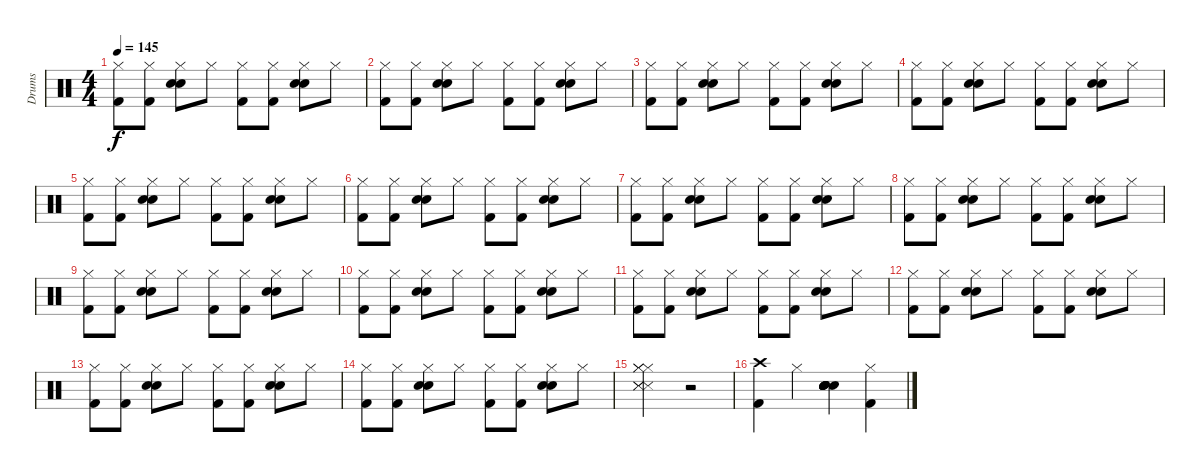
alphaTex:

\track ("Drums" "Drums") {instrument percussion}
\staff {score}
\articulation defaults
\ts (4 4)
\tempo 145
\clef neutral
\ks c
("Hi-Hat (closed)" "Kick (hit) 2").8{dy f} ("Hi-Hat (closed)" "Kick (hit) 2").8 ("Hi-Hat (closed)" "Electric Snare (hit)" "Snare (hit) 2").8 "Hi-Hat (closed)".8 ("Hi-Hat (closed)" "Kick (hit) 2").8 ("Hi-Hat (closed)" "Kick (hit) 2").8 ("Hi-Hat (closed)" "Electric Snare (hit)" "Snare (hit) 2").8 "Hi-Hat (closed)".8 |
("Hi-Hat (closed)" "Kick (hit) 2").8 ("Hi-Hat (closed)" "Kick (hit) 2").8 ("Hi-Hat (closed)" "Electric Snare (hit)" "Snare (hit) 2").8 "Hi-Hat (closed)".8 ("Hi-Hat (closed)" "Kick (hit) 2").8 ("Hi-Hat (closed)" "Kick (hit) 2").8 ("Hi-Hat (closed)" "Electric Snare (hit)" "Snare (hit) 2").8 "Hi-Hat (closed)".8 |
("Hi-Hat (closed)" "Kick (hit) 2").8 ("Hi-Hat (closed)" "Kick (hit) 2").8 ("Hi-Hat (closed)" "Electric Snare (hit)" "Snare (hit) 2").8 "Hi-Hat (closed)".8 ("Hi-Hat (closed)" "Kick (hit) 2").8 ("Hi-Hat (closed)" "Kick (hit) 2").8 ("Hi-Hat (closed)" "Electric Snare (hit)" "Snare (hit) 2").8 "Hi-Hat (closed)".8 |
("Hi-Hat (closed)" "Kick (hit) 2").8 ("Hi-Hat (closed)" "Kick (hit) 2").8 ("Hi-Hat (closed)" "Electric Snare (hit)" "Snare (hit) 2").8 "Hi-Hat (closed)".8 ("Hi-Hat (closed)" "Kick (hit) 2").8 ("Hi-Hat (closed)" "Kick (hit) 2").8 ("Hi-Hat (closed)" "Electric Snare (hit)" "Snare (hit) 2").8 "Hi-Hat (closed)".8 |
("Hi-Hat (closed)" "Kick (hit) 2").8 ("Hi-Hat (closed)" "Kick (hit) 2").8 ("Hi-Hat (closed)" "Electric Snare (hit)" "Snare (hit) 2").8 "Hi-Hat (closed)".8 ("Hi-Hat (closed)" "Kick (hit) 2").8 ("Hi-Hat (closed)" "Kick (hit) 2").8 ("Hi-Hat (closed)" "Electric Snare (hit)" "Snare (hit) 2").8 "Hi-Hat (closed)".8 |
("Hi-Hat (closed)" "Kick (hit) 2").8 ("Hi-Hat (closed)" "Kick (hit) 2").8 ("Hi-Hat (closed)" "Electric Snare (hit)" "Snare (hit) 2").8 "Hi-Hat (closed)".8 ("Hi-Hat (closed)" "Kick (hit) 2").8 ("Hi-Hat (closed)" "Kick (hit) 2").8 ("Hi-Hat (closed)" "Electric Snare (hit)" "Snare (hit) 2").8 "Hi-Hat (closed)".8 |
("Hi-Hat (closed)" "Kick (hit) 2").8 ("Hi-Hat (closed)" "Kick (hit) 2").8 ("Hi-Hat (closed)" "Electric Snare (hit)" "Snare (hit) 2").8 "Hi-Hat (closed)".8 ("Hi-Hat (closed)" "Kick (hit) 2").8 ("Hi-Hat (closed)" "Kick (hit) 2").8 ("Hi-Hat (closed)" "Electric Snare (hit)" "Snare (hit) 2").8 "Hi-Hat (closed)".8 |
("Hi-Hat (closed)" "Kick (hit) 2").8 ("Hi-Hat (closed)" "Kick (hit) 2").8 ("Hi-Hat (closed)" "Electric Snare (hit)" "Snare (hit) 2").8 "Hi-Hat (closed)".8 ("Hi-Hat (closed)" "Kick (hit) 2").8 ("Hi-Hat (closed)" "Kick (hit) 2").8 ("Hi-Hat (closed)" "Electric Snare (hit)" "Snare (hit) 2").8 "Hi-Hat (closed)".8 |
("Hi-Hat (closed)" "Kick (hit) 2").8 ("Hi-Hat (closed)" "Kick (hit) 2").8 ("Hi-Hat (closed)" "Electric Snare (hit)" "Snare (hit) 2").8 "Hi-Hat (closed)".8 ("Hi-Hat (closed)" "Kick (hit) 2").8 ("Hi-Hat (closed)" "Kick (hit) 2").8 ("Hi-Hat (closed)" "Electric Snare (hit)" "Snare (hit) 2").8 "Hi-Hat (closed)".8 |
("Hi-Hat (closed)" "Kick (hit) 2").8 ("Hi-Hat (closed)" "Kick (hit) 2").8 ("Hi-Hat (closed)" "Electric Snare (hit)" "Snare (hit) 2").8 "Hi-Hat (closed)".8 ("Hi-Hat (closed)" "Kick (hit) 2").8 ("Hi-Hat (closed)" "Kick (hit) 2").8 ("Hi-Hat (closed)" "Electric Snare (hit)" "Snare (hit) 2").8 "Hi-Hat (closed)".8 |
("Hi-Hat (closed)" "Kick (hit) 2").8 ("Hi-Hat (closed)" "Kick (hit) 2").8 ("Hi-Hat (closed)" "Electric Snare (hit)" "Snare (hit) 2").8 "Hi-Hat (closed)".8 ("Hi-Hat (closed)" "Kick (hit) 2").8 ("Hi-Hat (closed)" "Kick (hit) 2").8 ("Hi-Hat (closed)" "Electric Snare (hit)" "Snare (hit) 2").8 "Hi-Hat (closed)".8 |
("Hi-Hat (closed)" "Kick (hit) 2").8 ("Hi-Hat (closed)" "Kick (hit) 2").8 ("Hi-Hat (closed)" "Electric Snare (hit)" "Snare (hit) 2").8 "Hi-Hat (closed)".8 ("Hi-Hat (closed)" "Kick (hit) 2").8 ("Hi-Hat (closed)" "Kick (hit) 2").8 ("Hi-Hat (closed)" "Electric Snare (hit)" "Snare (hit) 2").8 "Hi-Hat (closed)".8 |
("Hi-Hat (closed)" "Kick (hit) 2").8 ("Hi-Hat (closed)" "Kick (hit) 2").8 ("Hi-Hat (closed)" "Electric Snare (hit)" "Snare (hit) 2").8 "Hi-Hat (closed)".8 ("Hi-Hat (closed)" "Kick (hit) 2").8 ("Hi-Hat (closed)" "Kick (hit) 2").8 ("Hi-Hat (closed)" "Electric Snare (hit)" "Snare (hit) 2").8 "Hi-Hat (closed)".8 |
("Hi-Hat (closed)" "Kick (hit) 2").8 ("Hi-Hat (closed)" "Kick (hit) 2").8 ("Hi-Hat (closed)" "Electric Snare (hit)" "Snare (hit) 2").8 "Hi-Hat (closed)".8 ("Hi-Hat (closed)" "Kick (hit) 2").8 ("Hi-Hat (closed)" "Kick (hit) 2").8 ("Hi-Hat (closed)" "Electric Snare (hit)" "Snare (hit) 2").8 "Hi-Hat (closed)".8 |
("Hi-Hat (closed)" "Snare (side stick) 3" "Snare (side stick) 3" "Snare (side stick) 3" "Hi-Hat (closed)" "Hi-Hat (closed)").2 r.2 |
("Kick (hit) 2" "Crash high (hit)").4 "Hi-Hat (closed)".4 ("Electric Snare (hit)" "Snare (hit) 2" "Snare (hit) 2" "Snare (hit) 2" "Snare (hit) 2" "Snare (hit) 2").4 ("Kick (hit) 2" "Hi-Hat (closed)").4
